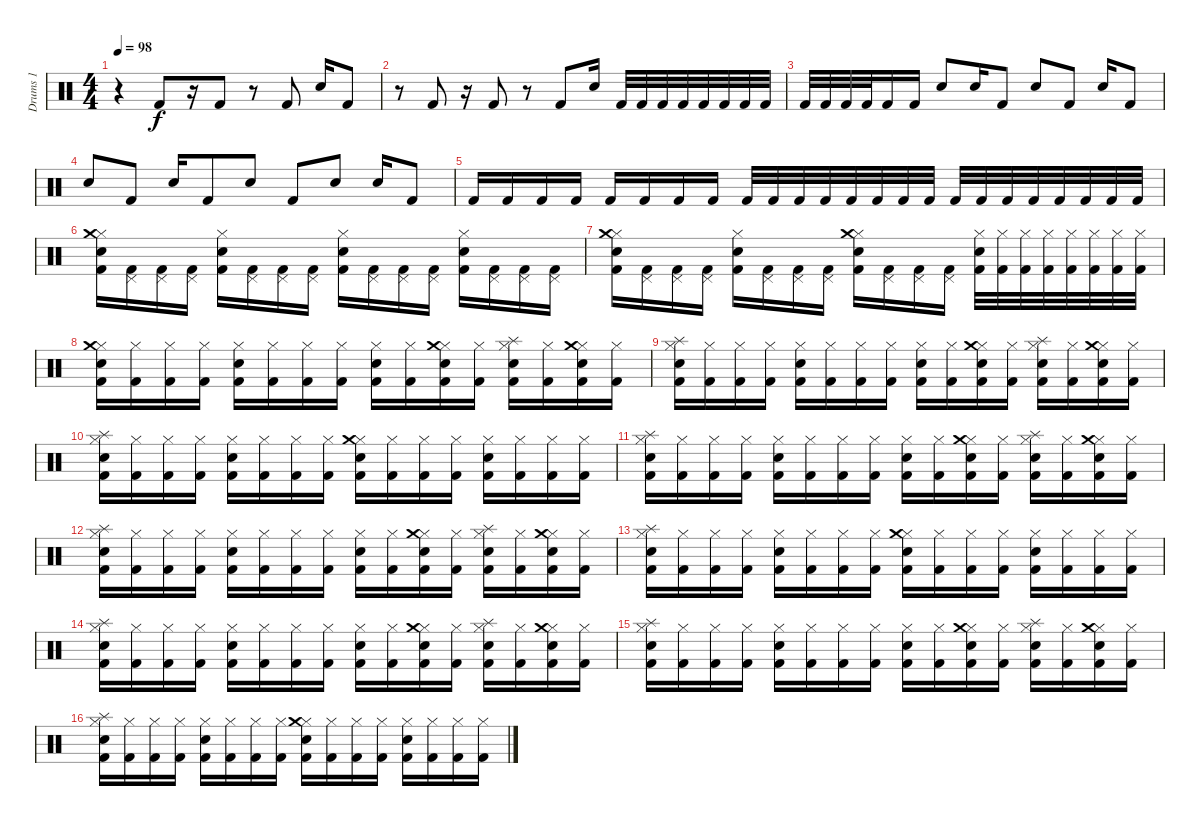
\track ("Drums 1" "Drums 1") {instrument percussion}
\staff {score}
\articulation defaults
\ts (4 4)
\tempo 98
\clef neutral
\ks c
r.4{dy f} "Kick (hit) 2".8 r.16 "Kick (hit) 2".8 r.8 "Kick (hit) 2".8 "Snare (hit) 2".16 "Kick (hit) 2".8 |
r.8 "Kick (hit) 2".8 r.16 "Kick (hit) 2".8 r.8 "Kick (hit) 2".8 "Snare (hit) 2".16 "Kick (hit) 2".32 "Kick (hit) 2".32 "Kick (hit) 2".32 "Kick (hit) 2".32 "Kick (hit) 2".32 "Kick (hit) 2".32 "Kick (hit) 2".32 "Kick (hit) 2".32 |
"Kick (hit) 2".32 "Kick (hit) 2".32 "Kick (hit) 2".32 "Kick (hit) 2".32 "Kick (hit) 2".16 "Kick (hit) 2".16 "Snare (hit) 2".8 "Snare (hit) 2"{x}.16 "Kick (hit) 2".8 "Snare (hit)"{x}.8 "Kick (hit) 2".8 "Snare (hit)"{x}.16 "Kick (hit) 2".8 |
"Snare (hit)"{x}.8 "Kick (hit) 2".8 "Snare (hit)"{x}.16 "Kick (hit) 2".8 "Snare (hit)"{x}.8 "Kick (hit) 2".8 "Snare (hit) 2".8 "Snare (hit)"{x}.16 "Kick (hit) 2".8 |
"Kick (hit) 2".16 "Kick (hit) 2".16 "Kick (hit) 2".16 "Kick (hit) 2".16 "Kick (hit) 2".16 "Kick (hit) 2".16 "Kick (hit) 2".16 "Kick (hit) 2".16 "Kick (hit) 2".32 "Kick (hit) 2".32 "Kick (hit) 2".32 "Kick (hit) 2".32 "Kick (hit) 2".32 "Kick (hit) 2".32 "Kick (hit) 2".32 "Kick (hit) 2".32 "Kick (hit) 2".32 "Kick (hit) 2".32 "Kick (hit) 2".32 "Kick (hit) 2".32 "Kick (hit) 2".32 "Kick (hit) 2".32 "Kick (hit) 2".32 "Kick (hit) 2".32 |
("Hi-Hat (closed)" "Snare (hit) 2" "Kick (hit) 2" "Crash medium (hit)").16 ("Pedal Hi-Hat (hit)" "Kick (hit) 2").16 ("Pedal Hi-Hat (hit)" "Kick (hit) 2").16 ("Pedal Hi-Hat (hit)" "Kick (hit) 2").16 ("Hi-Hat (closed)" "Snare (hit) 2" "Kick (hit) 2").16 ("Pedal Hi-Hat (hit)" "Kick (hit) 2").16 ("Pedal Hi-Hat (hit)" "Kick (hit) 2").16 ("Pedal Hi-Hat (hit)" "Kick (hit) 2").16 ("Hi-Hat (closed)" "Snare (hit) 2" "Kick (hit) 2").16 ("Pedal Hi-Hat (hit)" "Kick (hit) 2").16 ("Pedal Hi-Hat (hit)" "Kick (hit) 2").16 ("Pedal Hi-Hat (hit)" "Kick (hit) 2").16 ("Hi-Hat (closed)" "Snare (hit) 2" "Kick (hit) 2").16 ("Pedal Hi-Hat (hit)" "Kick (hit) 2").16 ("Pedal Hi-Hat (hit)" "Kick (hit) 2").16 ("Pedal Hi-Hat (hit)" "Kick (hit) 2").16 |
("Hi-Hat (closed)" "Snare (hit) 2" "Kick (hit) 2" "Crash medium (hit)").16 ("Pedal Hi-Hat (hit)" "Kick (hit) 2").16 ("Pedal Hi-Hat (hit)" "Kick (hit) 2").16 ("Pedal Hi-Hat (hit)" "Kick (hit) 2").16 ("Hi-Hat (closed)" "Snare (hit) 2" "Kick (hit) 2").16 ("Pedal Hi-Hat (hit)" "Kick (hit) 2").16 ("Pedal Hi-Hat (hit)" "Kick (hit) 2").16 ("Pedal Hi-Hat (hit)" "Kick (hit) 2").16 ("Hi-Hat (closed)" "Snare (hit) 2" "Kick (hit) 2" "Crash medium (hit)").16 ("Pedal Hi-Hat (hit)" "Kick (hit) 2").16 ("Pedal Hi-Hat (hit)" "Kick (hit) 2").16 ("Pedal Hi-Hat (hit)" "Kick (hit) 2").16 ("Hi-Hat (closed)" "Snare (hit) 2" "Kick (hit) 2").32 ("Hi-Hat (closed)" "Kick (hit) 2").32 ("Hi-Hat (closed)" "Kick (hit) 2").32 ("Hi-Hat (closed)" "Kick (hit) 2").32 ("Hi-Hat (closed)" "Kick (hit) 2").32 ("Hi-Hat (closed)" "Kick (hit) 2").32 ("Hi-Hat (closed)" "Kick (hit) 2").32 ("Hi-Hat (closed)" "Kick (hit) 2").32 |
("Hi-Hat (closed)" "Snare (hit) 2" "Kick (hit) 2" "Crash medium (hit)").16 ("Hi-Hat (closed)" "Kick (hit) 2").16 ("Hi-Hat (closed)" "Kick (hit) 2").16 ("Hi-Hat (closed)" "Kick (hit) 2").16 ("Hi-Hat (closed)" "Snare (hit) 2" "Kick (hit) 2").16 ("Hi-Hat (closed)" "Kick (hit) 2").16 ("Hi-Hat (closed)" "Kick (hit) 2").16 ("Hi-Hat (closed)" "Kick (hit) 2").16 ("Hi-Hat (closed)" "Snare (hit) 2" "Kick (hit) 2").16 ("Hi-Hat (closed)" "Kick (hit) 2").16 ("Hi-Hat (closed)" "Snare (hit) 2" "Kick (hit) 2" "Crash medium (hit)").16 ("Hi-Hat (closed)" "Kick (hit) 2").16 ("Hi-Hat (closed)" "Snare (hit) 2" "Kick (hit) 2" "Splash (hit)").16 ("Hi-Hat (closed)" "Kick (hit) 2").16 ("Hi-Hat (closed)" "Snare (hit) 2" "Kick (hit) 2" "Crash medium (hit)").16 ("Hi-Hat (closed)" "Kick (hit) 2").16 |
("Hi-Hat (closed)" "Snare (hit) 2" "Kick (hit) 2" "Splash (hit)").16 ("Hi-Hat (closed)" "Kick (hit) 2").16 ("Hi-Hat (closed)" "Kick (hit) 2").16 ("Hi-Hat (closed)" "Kick (hit) 2").16 ("Hi-Hat (closed)" "Snare (hit) 2" "Kick (hit) 2").16 ("Hi-Hat (closed)" "Kick (hit) 2").16 ("Hi-Hat (closed)" "Kick (hit) 2").16 ("Hi-Hat (closed)" "Kick (hit) 2").16 ("Hi-Hat (closed)" "Snare (hit) 2" "Kick (hit) 2").16 ("Hi-Hat (closed)" "Kick (hit) 2").16 ("Hi-Hat (closed)" "Snare (hit) 2" "Kick (hit) 2" "Crash medium (hit)").16 ("Hi-Hat (closed)" "Kick (hit) 2").16 ("Hi-Hat (closed)" "Snare (hit) 2" "Kick (hit) 2" "Splash (hit)").16 ("Hi-Hat (closed)" "Kick (hit) 2").16 ("Hi-Hat (closed)" "Snare (hit) 2" "Kick (hit) 2" "Crash medium (hit)").16 ("Hi-Hat (closed)" "Kick (hit) 2").16 |
("Hi-Hat (closed)" "Snare (hit) 2" "Kick (hit) 2" "Splash (hit)").16 ("Hi-Hat (closed)" "Kick (hit) 2").16 ("Hi-Hat (closed)" "Kick (hit) 2").16 ("Hi-Hat (closed)" "Kick (hit) 2").16 ("Hi-Hat (closed)" "Snare (hit) 2" "Kick (hit) 2").16 ("Hi-Hat (closed)" "Kick (hit) 2").16 ("Hi-Hat (closed)" "Kick (hit) 2").16 ("Hi-Hat (closed)" "Kick (hit) 2").16 ("Hi-Hat (closed)" "Snare (hit) 2" "Kick (hit) 2" "Crash medium (hit)").16 ("Hi-Hat (closed)" "Kick (hit) 2").16 ("Hi-Hat (closed)" "Kick (hit) 2").16 ("Hi-Hat (closed)" "Kick (hit) 2").16 ("Hi-Hat (closed)" "Snare (hit) 2" "Kick (hit) 2").16 ("Hi-Hat (closed)" "Kick (hit) 2").16 ("Hi-Hat (closed)" "Kick (hit) 2").16 ("Hi-Hat (closed)" "Kick (hit) 2").16 |
("Hi-Hat (closed)" "Snare (hit) 2" "Kick (hit) 2" "Splash (hit)").16 ("Hi-Hat (closed)" "Kick (hit) 2").16 ("Hi-Hat (closed)" "Kick (hit) 2").16 ("Hi-Hat (closed)" "Kick (hit) 2").16 ("Hi-Hat (closed)" "Snare (hit) 2" "Kick (hit) 2").16 ("Hi-Hat (closed)" "Kick (hit) 2").16 ("Hi-Hat (closed)" "Kick (hit) 2").16 ("Hi-Hat (closed)" "Kick (hit) 2").16 ("Hi-Hat (closed)" "Snare (hit) 2" "Kick (hit) 2").16 ("Hi-Hat (closed)" "Kick (hit) 2").16 ("Hi-Hat (closed)" "Snare (hit) 2" "Kick (hit) 2" "Crash medium (hit)").16 ("Hi-Hat (closed)" "Kick (hit) 2").16 ("Hi-Hat (closed)" "Snare (hit) 2" "Kick (hit) 2" "Splash (hit)").16 ("Hi-Hat (closed)" "Kick (hit) 2").16 ("Hi-Hat (closed)" "Snare (hit) 2" "Kick (hit) 2" "Crash medium (hit)").16 ("Hi-Hat (closed)" "Kick (hit) 2").16 |
("Hi-Hat (closed)" "Snare (hit) 2" "Kick (hit) 2" "Splash (hit)").16 ("Hi-Hat (closed)" "Kick (hit) 2").16 ("Hi-Hat (closed)" "Kick (hit) 2").16 ("Hi-Hat (closed)" "Kick (hit) 2").16 ("Hi-Hat (closed)" "Snare (hit) 2" "Kick (hit) 2").16 ("Hi-Hat (closed)" "Kick (hit) 2").16 ("Hi-Hat (closed)" "Kick (hit) 2").16 ("Hi-Hat (closed)" "Kick (hit) 2").16 ("Hi-Hat (closed)" "Snare (hit) 2" "Kick (hit) 2").16 ("Hi-Hat (closed)" "Kick (hit) 2").16 ("Hi-Hat (closed)" "Snare (hit) 2" "Kick (hit) 2" "Crash medium (hit)").16 ("Hi-Hat (closed)" "Kick (hit) 2").16 ("Hi-Hat (closed)" "Snare (hit) 2" "Kick (hit) 2" "Splash (hit)").16 ("Hi-Hat (closed)" "Kick (hit) 2").16 ("Hi-Hat (closed)" "Snare (hit) 2" "Kick (hit) 2" "Crash medium (hit)").16 ("Hi-Hat (closed)" "Kick (hit) 2").16 |
("Hi-Hat (closed)" "Snare (hit) 2" "Kick (hit) 2" "Splash (hit)").16 ("Hi-Hat (closed)" "Kick (hit) 2").16 ("Hi-Hat (closed)" "Kick (hit) 2").16 ("Hi-Hat (closed)" "Kick (hit) 2").16 ("Hi-Hat (closed)" "Snare (hit) 2" "Kick (hit) 2").16 ("Hi-Hat (closed)" "Kick (hit) 2").16 ("Hi-Hat (closed)" "Kick (hit) 2").16 ("Hi-Hat (closed)" "Kick (hit) 2").16 ("Hi-Hat (closed)" "Snare (hit) 2" "Kick (hit) 2" "Crash medium (hit)").16 ("Hi-Hat (closed)" "Kick (hit) 2").16 ("Hi-Hat (closed)" "Kick (hit) 2").16 ("Hi-Hat (closed)" "Kick (hit) 2").16 ("Hi-Hat (closed)" "Snare (hit) 2" "Kick (hit) 2").16 ("Hi-Hat (closed)" "Kick (hit) 2").16 ("Hi-Hat (closed)" "Kick (hit) 2").16 ("Hi-Hat (closed)" "Kick (hit) 2").16 |
("Hi-Hat (closed)" "Snare (hit) 2" "Kick (hit) 2" "Splash (hit)").16 ("Hi-Hat (closed)" "Kick (hit) 2").16 ("Hi-Hat (closed)" "Kick (hit) 2").16 ("Hi-Hat (closed)" "Kick (hit) 2").16 ("Hi-Hat (closed)" "Snare (hit) 2" "Kick (hit) 2").16 ("Hi-Hat (closed)" "Kick (hit) 2").16 ("Hi-Hat (closed)" "Kick (hit) 2").16 ("Hi-Hat (closed)" "Kick (hit) 2").16 ("Hi-Hat (closed)" "Snare (hit) 2" "Kick (hit) 2").16 ("Hi-Hat (closed)" "Kick (hit) 2").16 ("Hi-Hat (closed)" "Snare (hit) 2" "Kick (hit) 2" "Crash medium (hit)").16 ("Hi-Hat (closed)" "Kick (hit) 2").16 ("Hi-Hat (closed)" "Snare (hit) 2" "Kick (hit) 2" "Splash (hit)").16 ("Hi-Hat (closed)" "Kick (hit) 2").16 ("Hi-Hat (closed)" "Snare (hit) 2" "Kick (hit) 2" "Crash medium (hit)").16 ("Hi-Hat (closed)" "Kick (hit) 2").16 |
("Hi-Hat (closed)" "Snare (hit) 2" "Kick (hit) 2" "Splash (hit)").16 ("Hi-Hat (closed)" "Kick (hit) 2").16 ("Hi-Hat (closed)" "Kick (hit) 2").16 ("Hi-Hat (closed)" "Kick (hit) 2").16 ("Hi-Hat (closed)" "Snare (hit) 2" "Kick (hit) 2").16 ("Hi-Hat (closed)" "Kick (hit) 2").16 ("Hi-Hat (closed)" "Kick (hit) 2").16 ("Hi-Hat (closed)" "Kick (hit) 2").16 ("Hi-Hat (closed)" "Snare (hit) 2" "Kick (hit) 2").16 ("Hi-Hat (closed)" "Kick (hit) 2").16 ("Hi-Hat (closed)" "Snare (hit) 2" "Kick (hit) 2" "Crash medium (hit)").16 ("Hi-Hat (closed)" "Kick (hit) 2").16 ("Hi-Hat (closed)" "Snare (hit) 2" "Kick (hit) 2" "Splash (hit)").16 ("Hi-Hat (closed)" "Kick (hit) 2").16 ("Hi-Hat (closed)" "Snare (hit) 2" "Kick (hit) 2" "Crash medium (hit)").16 ("Hi-Hat (closed)" "Kick (hit) 2").16 |
("Hi-Hat (closed)" "Snare (hit) 2" "Kick (hit) 2" "Splash (hit)").16 ("Hi-Hat (closed)" "Kick (hit) 2").16 ("Hi-Hat (closed)" "Kick (hit) 2").16 ("Hi-Hat (closed)" "Kick (hit) 2").16 ("Hi-Hat (closed)" "Snare (hit) 2" "Kick (hit) 2").16 ("Hi-Hat (closed)" "Kick (hit) 2").16 ("Hi-Hat (closed)" "Kick (hit) 2").16 ("Hi-Hat (closed)" "Kick (hit) 2").16 ("Hi-Hat (closed)" "Snare (hit) 2" "Kick (hit) 2" "Crash medium (hit)").16 ("Hi-Hat (closed)" "Kick (hit) 2").16 ("Hi-Hat (closed)" "Kick (hit) 2").16 ("Hi-Hat (closed)" "Kick (hit) 2").16 ("Hi-Hat (closed)" "Snare (hit) 2" "Kick (hit) 2").16 ("Hi-Hat (closed)" "Kick (hit) 2").16 ("Hi-Hat (closed)" "Kick (hit) 2").16 ("Hi-Hat (closed)" "Kick (hit) 2").16
